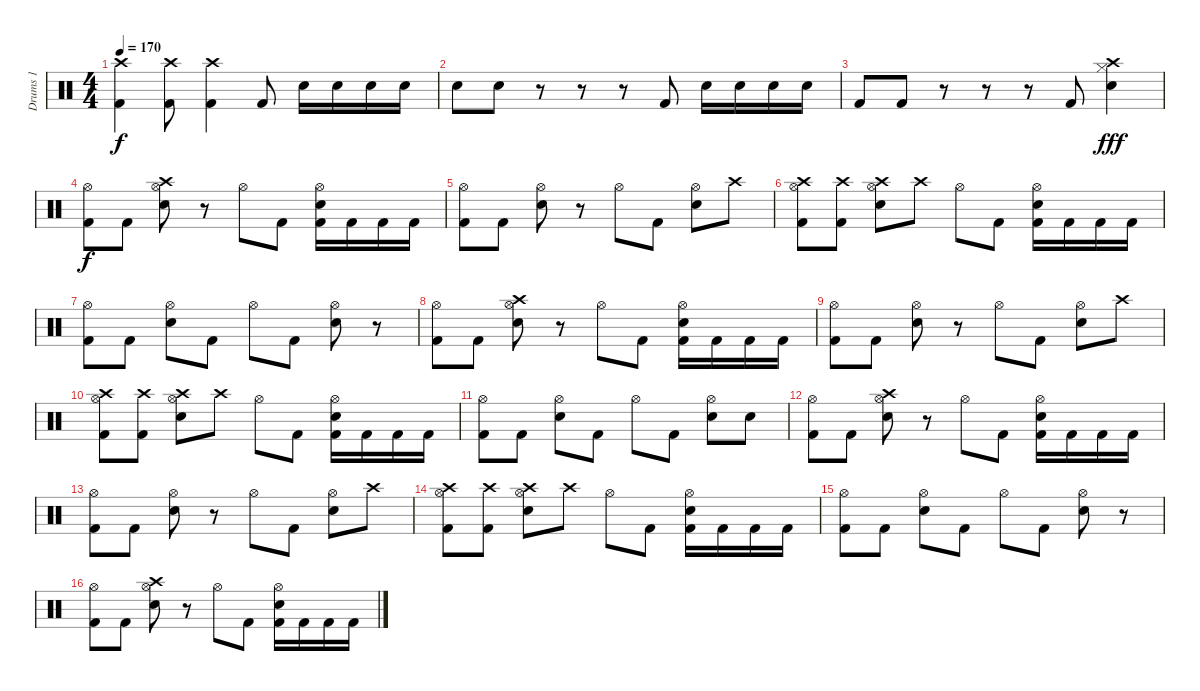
\track ("Drums 1" "Drums 1") {instrument percussion}
\staff {score}
\articulation defaults
\ts (4 4)
\tempo 170
\clef neutral
\ks c
("Crash high (hit)" "Kick (hit) 2").4{dy f} ("Crash high (hit)" "Kick (hit) 2").8 ("Crash high (hit)" "Kick (hit) 2").4 "Kick (hit) 2".8 "Electric Snare (hit)".16 "Electric Snare (hit)".16 "Electric Snare (hit)".16 "Electric Snare (hit)".16 |
"Electric Snare (hit)".8 "Electric Snare (hit)".8 r.8 r.8 r.8 "Kick (hit) 2".8 "Electric Snare (hit)".16 "Electric Snare (hit)".16 "Electric Snare (hit)".16 "Electric Snare (hit)".16 |
"Kick (hit) 2".8 "Kick (hit) 2".8 r.8 r.8 r.8 "Kick (hit) 2".8 ("Crash high (hit)" "Hi-Hat (closed)" "Electric Snare (hit)").4{dy fff} |
("Hi-Hat (open)" "Kick (hit) 2").8{dy f} "Kick (hit) 2".8 ("Crash high (hit)" "Hi-Hat (open)" "Electric Snare (hit)").8 r.8 "Hi-Hat (open)".8 "Kick (hit) 2".8 ("Hi-Hat (open)" "Electric Snare (hit)" "Kick (hit) 2").16 "Kick (hit) 2".16 "Kick (hit) 2".16 "Kick (hit) 2".16 |
("Hi-Hat (open)" "Kick (hit) 2").8 "Kick (hit) 2".8 ("Hi-Hat (open)" "Electric Snare (hit)").8 r.8 "Hi-Hat (open)".8 "Kick (hit) 2".8 ("Hi-Hat (open)" "Electric Snare (hit)").8 "Crash high (hit)".8 |
("Crash high (hit)" "Hi-Hat (open)" "Kick (hit) 2").8 ("Crash high (hit)" "Kick (hit) 2").8 ("Crash high (hit)" "Hi-Hat (open)" "Electric Snare (hit)").8 "Crash high (hit)".8 "Hi-Hat (open)".8 "Kick (hit) 2".8 ("Hi-Hat (open)" "Electric Snare (hit)" "Kick (hit) 2").16 "Kick (hit) 2".16 "Kick (hit) 2".16 "Kick (hit) 2".16 |
("Hi-Hat (open)" "Kick (hit) 2").8 "Kick (hit) 2".8 ("Hi-Hat (open)" "Electric Snare (hit)").8 "Kick (hit) 2".8 "Hi-Hat (open)".8 "Kick (hit) 2".8 ("Hi-Hat (open)" "Electric Snare (hit)").8 r.8 |
("Hi-Hat (open)" "Kick (hit) 2").8 "Kick (hit) 2".8 ("Crash high (hit)" "Hi-Hat (open)" "Electric Snare (hit)").8 r.8 "Hi-Hat (open)".8 "Kick (hit) 2".8 ("Hi-Hat (open)" "Electric Snare (hit)" "Kick (hit) 2").16 "Kick (hit) 2".16 "Kick (hit) 2".16 "Kick (hit) 2".16 |
("Hi-Hat (open)" "Kick (hit) 2").8 "Kick (hit) 2".8 ("Hi-Hat (open)" "Electric Snare (hit)").8 r.8 "Hi-Hat (open)".8 "Kick (hit) 2".8 ("Hi-Hat (open)" "Electric Snare (hit)").8 "Crash high (hit)".8 |
("Crash high (hit)" "Hi-Hat (open)" "Kick (hit) 2").8 ("Crash high (hit)" "Kick (hit) 2").8 ("Crash high (hit)" "Hi-Hat (open)" "Electric Snare (hit)").8 "Crash high (hit)".8 "Hi-Hat (open)".8 "Kick (hit) 2".8 ("Hi-Hat (open)" "Electric Snare (hit)" "Kick (hit) 2").16 "Kick (hit) 2".16 "Kick (hit) 2".16 "Kick (hit) 2".16 |
("Hi-Hat (open)" "Kick (hit) 2").8 "Kick (hit) 2".8 ("Hi-Hat (open)" "Electric Snare (hit)").8 "Kick (hit) 2".8 "Hi-Hat (open)".8 "Kick (hit) 2".8 ("Hi-Hat (open)" "Electric Snare (hit)").8 "Electric Snare (hit)".8 |
("Hi-Hat (open)" "Kick (hit) 2").8 "Kick (hit) 2".8 ("Crash high (hit)" "Hi-Hat (open)" "Electric Snare (hit)").8 r.8 "Hi-Hat (open)".8 "Kick (hit) 2".8 ("Hi-Hat (open)" "Electric Snare (hit)" "Kick (hit) 2").16 "Kick (hit) 2".16 "Kick (hit) 2".16 "Kick (hit) 2".16 |
("Hi-Hat (open)" "Kick (hit) 2").8 "Kick (hit) 2".8 ("Hi-Hat (open)" "Electric Snare (hit)").8 r.8 "Hi-Hat (open)".8 "Kick (hit) 2".8 ("Hi-Hat (open)" "Electric Snare (hit)").8 "Crash high (hit)".8 |
("Crash high (hit)" "Hi-Hat (open)" "Kick (hit) 2").8 ("Crash high (hit)" "Kick (hit) 2").8 ("Crash high (hit)" "Hi-Hat (open)" "Electric Snare (hit)").8 "Crash high (hit)".8 "Hi-Hat (open)".8 "Kick (hit) 2".8 ("Hi-Hat (open)" "Electric Snare (hit)" "Kick (hit) 2").16 "Kick (hit) 2".16 "Kick (hit) 2".16 "Kick (hit) 2".16 |
("Hi-Hat (open)" "Kick (hit) 2").8 "Kick (hit) 2".8 ("Hi-Hat (open)" "Electric Snare (hit)").8 "Kick (hit) 2".8 "Hi-Hat (open)".8 "Kick (hit) 2".8 ("Hi-Hat (open)" "Electric Snare (hit)").8 r.8 |
("Hi-Hat (open)" "Kick (hit) 2").8 "Kick (hit) 2".8 ("Crash high (hit)" "Hi-Hat (open)" "Electric Snare (hit)").8 r.8 "Hi-Hat (open)".8 "Kick (hit) 2".8 ("Hi-Hat (open)" "Electric Snare (hit)" "Kick (hit) 2").16 "Kick (hit) 2".16 "Kick (hit) 2".16 "Kick (hit) 2".16
